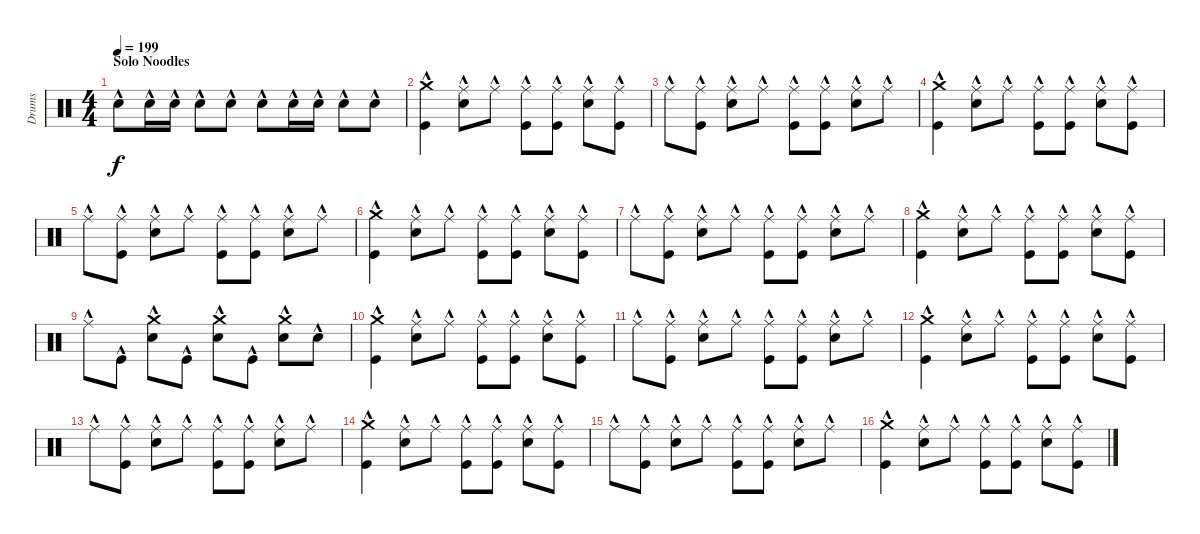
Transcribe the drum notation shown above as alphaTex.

\track ("Drumkit" "Drums") {instrument percussion}
\staff {score}
\articulation defaults
\ts (4 4)
\section ("" "Solo Noodles")
\tempo 199
\clef neutral
\ks c "Snare (hit) 2"{hac}.8{dy f} "Snare (hit) 2"{hac}.16 "Snare (hit) 2"{hac}.16 "Snare (hit) 2"{hac}.8 "Snare (hit) 2"{hac}.8 "Snare (hit) 2"{hac}.8 "Snare (hit) 2"{hac}.16 "Snare (hit) 2"{hac}.16 "Snare (hit) 2"{hac}.8 "Snare (hit) 2"{hac}.8
|
("Kick (hit)"{hac} "Crash medium (hit)"{hac}).4 ("Ride (middle)"{hac} "Snare (hit) 2"{hac}).8 "Ride (middle)"{hac}.8 ("Ride (middle)"{hac} "Kick (hit)"{hac}).8 ("Ride (middle)"{hac} "Kick (hit)"{hac}).8 ("Ride (middle)"{hac} "Snare (hit) 2"{hac}).8 ("Ride (middle)"{hac} "Kick (hit)"{hac}).8 |
"Ride (middle)"{hac}.8 ("Kick (hit)"{hac} "Ride (middle)"{hac}).8 ("Ride (middle)"{hac} "Snare (hit) 2"{hac}).8 "Ride (middle)"{hac}.8 ("Ride (middle)"{hac} "Kick (hit)"{hac}).8 ("Kick (hit)"{hac} "Ride (middle)"{hac}).8 ("Ride (middle)"{hac} "Snare (hit) 2"{hac}).8 "Ride (middle)"{hac}.8 |
("Kick (hit)"{hac} "Crash medium (hit)"{hac}).4 ("Ride (middle)"{hac} "Snare (hit) 2"{hac}).8 "Ride (middle)"{hac}.8 ("Ride (middle)"{hac} "Kick (hit)"{hac}).8 ("Ride (middle)"{hac} "Kick (hit)"{hac}).8 ("Ride (middle)"{hac} "Snare (hit) 2"{hac}).8 ("Ride (middle)"{hac} "Kick (hit)"{hac}).8 |
"Ride (middle)"{hac}.8 ("Kick (hit)"{hac} "Ride (middle)"{hac}).8 ("Ride (middle)"{hac} "Snare (hit) 2"{hac}).8 "Ride (middle)"{hac}.8 ("Ride (middle)"{hac} "Kick (hit)"{hac}).8 ("Kick (hit)"{hac} "Ride (middle)"{hac}).8 ("Ride (middle)"{hac} "Snare (hit) 2"{hac}).8 "Ride (middle)"{hac}.8 |
("Kick (hit)"{hac} "Crash medium (hit)"{hac}).4 ("Ride (middle)"{hac} "Snare (hit) 2"{hac}).8 "Ride (middle)"{hac}.8 ("Ride (middle)"{hac} "Kick (hit)"{hac}).8 ("Ride (middle)"{hac} "Kick (hit)"{hac}).8 ("Ride (middle)"{hac} "Snare (hit) 2"{hac}).8 ("Ride (middle)"{hac} "Kick (hit)"{hac}).8 |
"Ride (middle)"{hac}.8 ("Kick (hit)"{hac} "Ride (middle)"{hac}).8 ("Ride (middle)"{hac} "Snare (hit) 2"{hac}).8 "Ride (middle)"{hac}.8 ("Ride (middle)"{hac} "Kick (hit)"{hac}).8 ("Kick (hit)"{hac} "Ride (middle)"{hac}).8 ("Ride (middle)"{hac} "Snare (hit) 2"{hac}).8 "Ride (middle)"{hac}.8 |
("Kick (hit)"{hac} "Crash medium (hit)"{hac}).4 ("Ride (middle)"{hac} "Snare (hit) 2"{hac}).8 "Ride (middle)"{hac}.8 ("Ride (middle)"{hac} "Kick (hit)"{hac}).8 ("Ride (middle)"{hac} "Kick (hit)"{hac}).8 ("Ride (middle)"{hac} "Snare (hit) 2"{hac}).8 ("Ride (middle)"{hac} "Kick (hit)"{hac}).8 |
"Ride (middle)"{hac}.8 "Kick (hit)"{hac}.8 ("Crash medium (hit)"{hac} "Snare (hit) 2"{hac}).8 "Kick (hit)"{hac}.8 ("Crash medium (hit)"{hac} "Snare (hit) 2"{hac}).8 "Kick (hit)"{hac}.8 ("Crash medium (hit)"{hac} "Snare (hit) 2"{hac}).8 "Snare (hit) 2"{hac}.8 |
("Kick (hit)"{hac} "Crash medium (hit)"{hac}).4 ("Ride (middle)"{hac} "Snare (hit) 2"{hac}).8 "Ride (middle)"{hac}.8 ("Ride (middle)"{hac} "Kick (hit)"{hac}).8 ("Ride (middle)"{hac} "Kick (hit)"{hac}).8 ("Ride (middle)"{hac} "Snare (hit) 2"{hac}).8 ("Ride (middle)"{hac} "Kick (hit)"{hac}).8 |
"Ride (middle)"{hac}.8 ("Kick (hit)"{hac} "Ride (middle)"{hac}).8 ("Ride (middle)"{hac} "Snare (hit) 2"{hac}).8 "Ride (middle)"{hac}.8 ("Ride (middle)"{hac} "Kick (hit)"{hac}).8 ("Kick (hit)"{hac} "Ride (middle)"{hac}).8 ("Ride (middle)"{hac} "Snare (hit) 2"{hac}).8 "Ride (middle)"{hac}.8 |
("Kick (hit)"{hac} "Crash medium (hit)"{hac}).4 ("Ride (middle)"{hac} "Snare (hit) 2"{hac}).8 "Ride (middle)"{hac}.8 ("Ride (middle)"{hac} "Kick (hit)"{hac}).8 ("Ride (middle)"{hac} "Kick (hit)"{hac}).8 ("Ride (middle)"{hac} "Snare (hit) 2"{hac}).8 ("Ride (middle)"{hac} "Kick (hit)"{hac}).8 |
"Ride (middle)"{hac}.8 ("Kick (hit)"{hac} "Ride (middle)"{hac}).8 ("Ride (middle)"{hac} "Snare (hit) 2"{hac}).8 "Ride (middle)"{hac}.8 ("Ride (middle)"{hac} "Kick (hit)"{hac}).8 ("Kick (hit)"{hac} "Ride (middle)"{hac}).8 ("Ride (middle)"{hac} "Snare (hit) 2"{hac}).8 "Ride (middle)"{hac}.8 |
("Kick (hit)"{hac} "Crash medium (hit)"{hac}).4 ("Ride (middle)"{hac} "Snare (hit) 2"{hac}).8 "Ride (middle)"{hac}.8 ("Ride (middle)"{hac} "Kick (hit)"{hac}).8 ("Ride (middle)"{hac} "Kick (hit)"{hac}).8 ("Ride (middle)"{hac} "Snare (hit) 2"{hac}).8 ("Ride (middle)"{hac} "Kick (hit)"{hac}).8 |
"Ride (middle)"{hac}.8 ("Kick (hit)"{hac} "Ride (middle)"{hac}).8 ("Ride (middle)"{hac} "Snare (hit) 2"{hac}).8 "Ride (middle)"{hac}.8 ("Ride (middle)"{hac} "Kick (hit)"{hac}).8 ("Kick (hit)"{hac} "Ride (middle)"{hac}).8 ("Ride (middle)"{hac} "Snare (hit) 2"{hac}).8 "Ride (middle)"{hac}.8 |
("Kick (hit)"{hac} "Crash medium (hit)"{hac}).4 ("Ride (middle)"{hac} "Snare (hit) 2"{hac}).8 "Ride (middle)"{hac}.8 ("Ride (middle)"{hac} "Kick (hit)"{hac}).8 ("Ride (middle)"{hac} "Kick (hit)"{hac}).8 ("Ride (middle)"{hac} "Snare (hit) 2"{hac}).8 ("Ride (middle)"{hac} "Kick (hit)"{hac}).8
